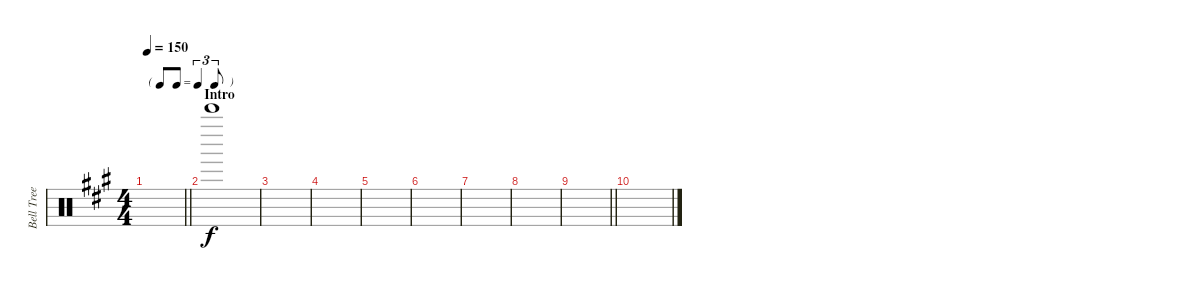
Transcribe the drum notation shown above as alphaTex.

\track ("Bell Tree" "Bell Tree") {instrument percussion}
\staff {score}
\articulation defaults
\ts (4 4)
\tf triplet8th
\tempo 150
\clef neutral
\barLineRight lightlight
\ks a
|
\section ("" "Intro")
"Bell Tree (hit)".1 |
|
|
|
|
|
|
\barLineRight lightlight
|
\section ("" "")
